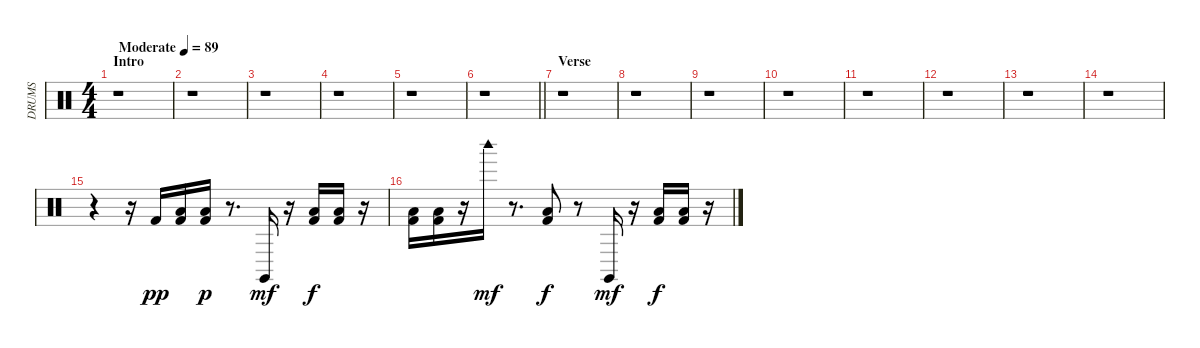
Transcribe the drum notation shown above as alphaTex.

\track ("DRUMS" "DRUMS") {instrument percussion}
\staff {score}
\articulation defaults
\ts (4 4)
\section ("" "Intro")
\tempo (89 "Moderate")
\clef neutral
\ks c
r.1{dy pp} |
r.1 |
r.1 |
r.1 |
r.1 |
\barLineRight lightlight
r.1 |
\section ("" "Verse")
r.1 |
r.1 |
r.1 |
r.1 |
r.1 |
r.1 |
r.1 |
r.1 |
r.4 r.16 "Kick (hit) 2".16 ("Kick (hit) 2" "Low Floor Tom (hit)").16 ("Kick (hit) 2" "Low Floor Tom (hit)").16{dy p} r.8{d} "Claves (hit)".16{dy mf} r.16 ("Kick (hit) 2" "Low Floor Tom (hit)").16{dy f} ("Kick (hit) 2" "Low Floor Tom (hit)").16 r.16 |
("Kick (hit) 2" "Low Floor Tom (hit)").16 ("Kick (hit) 2" "Low Floor Tom (hit)").16 r.16 "Woodblock high (hit)".16{dy mf} r.8{d} ("Kick (hit) 2" "Low Floor Tom (hit)").8{dy f} r.8 "Claves (hit)".16{dy mf} r.16 ("Kick (hit) 2" "Low Floor Tom (hit)").16{dy f} ("Kick (hit) 2" "Low Floor Tom (hit)").16 r.16
